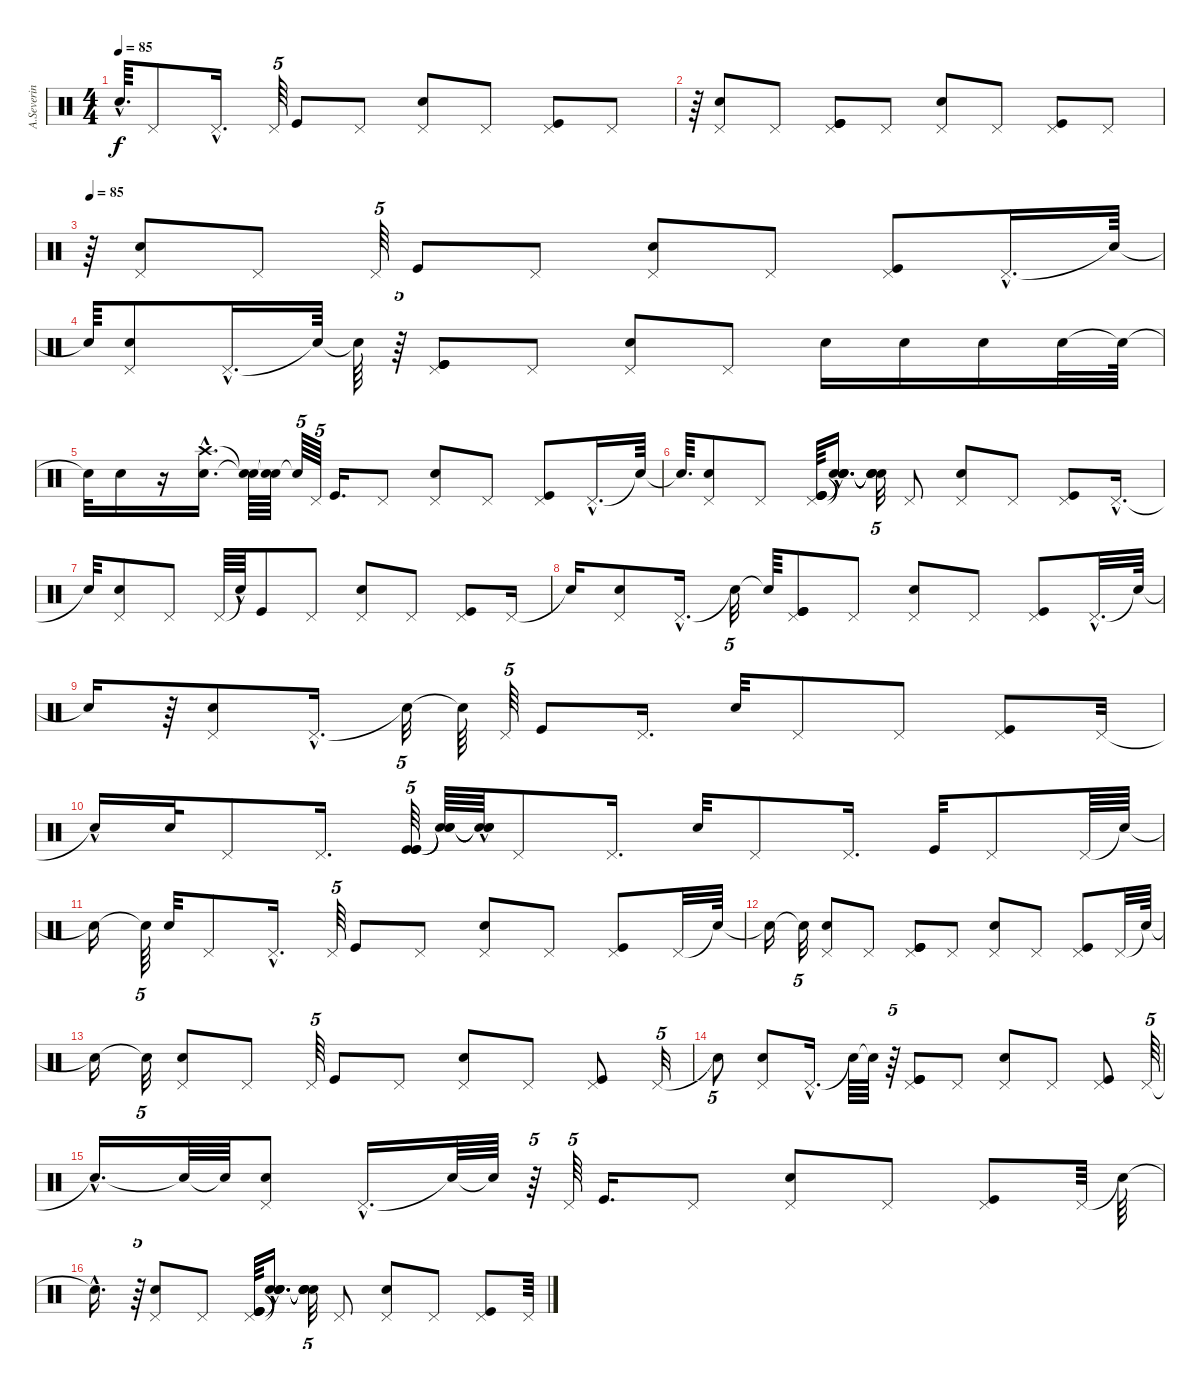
\track ("A.Severin        Drums                  " "A.Severin ") {instrument percussion}
\staff {score}
\articulation defaults
\ts (4 4)
\tempo 85
\clef neutral
\ks c "Snare (hit)"{hac t}.64{d dy f} "Pedal Hi-Hat (hit)".8 "Pedal Hi-Hat (hit)"{hac}.16{d} "Pedal Hi-Hat (hit)".64{tu (5 4)} "Kick (hit)".8 "Pedal Hi-Hat (hit)".8
("Electric Snare (hit)" "Pedal Hi-Hat (hit)").8 "Pedal Hi-Hat (hit)".8 ("Pedal Hi-Hat (hit)" "Kick (hit)").8 "Pedal Hi-Hat (hit)".8 |
r.64 ("Electric Snare (hit)" "Pedal Hi-Hat (hit)").8 "Pedal Hi-Hat (hit)".8 ("Kick (hit)" "Kick (hit)" "Kick (hit)" "Pedal Hi-Hat (hit)").8 "Pedal Hi-Hat (hit)".8 ("Electric Snare (hit)" "Pedal Hi-Hat (hit)").8 "Pedal Hi-Hat (hit)".8 ("Kick (hit)" "Pedal Hi-Hat (hit)").8 "Pedal Hi-Hat (hit)".8 |
\tempo 85
r.64 ("Electric Snare (hit)" "Pedal Hi-Hat (hit)").8 "Pedal Hi-Hat (hit)".8 "Pedal Hi-Hat (hit)".64{tu (5 4)} "Kick (hit)".8 "Pedal Hi-Hat (hit)".8 ("Electric Snare (hit)" "Pedal Hi-Hat (hit)").8 "Pedal Hi-Hat (hit)".8 ("Pedal Hi-Hat (hit)" "Kick (hit)").8 "Pedal Hi-Hat (hit)"{hac}.16{d} "Snare (hit)"{t}.64 |
"Snare (hit)"{t}.64 ("Electric Snare (hit)" "Pedal Hi-Hat (hit)").8 "Pedal Hi-Hat (hit)"{hac}.16{d} "Snare (hit)"{t}.64 "Snare (hit)"{t}.64 r.64{tu (5 4)} ("Kick (hit)" "Kick (hit)" "Kick (hit)" "Pedal Hi-Hat (hit)").8 "Pedal Hi-Hat (hit)".8 ("Electric Snare (hit)" "Pedal Hi-Hat (hit)").8 "Pedal Hi-Hat (hit)".8 "Electric Snare (hit)".16 "Electric Snare (hit)".16 "Electric Snare (hit)".16 "Electric Snare (hit)".32 "Snare (hit)"{t}.64 |
"Snare (hit)"{t}.32 "Electric Snare (hit)".16 r.16 ("Crash high (hit)"{hac} "Electric Snare (hit)"{hac}).16{d} ("Snare (hit)"{t} "Snare (hit)"{t}).64 ("Snare (hit)"{t} "Snare (hit)"{t}).64 "Snare (hit)"{t}.64{tu (5 4)} "Pedal Hi-Hat (hit)".64{tu (5 4)} "Kick (hit)".16{d} "Pedal Hi-Hat (hit)".8 ("Electric Snare (hit)" "Pedal Hi-Hat (hit)").8 "Pedal Hi-Hat (hit)".8 ("Kick (hit)" "Pedal Hi-Hat (hit)").8 "Pedal Hi-Hat (hit)"{hac}.16{d} "Snare (hit)"{t}.64 |
"Snare (hit)"{t}.64{d} ("Electric Snare (hit)" "Pedal Hi-Hat (hit)").8 "Pedal Hi-Hat (hit)".8 ("Kick (hit)" "Kick (hit)" "Kick (hit)" "Pedal Hi-Hat (hit)").64 ("Snare (hit)"{hac t} "Snare (hit)"{hac t} "Snare (hit)"{hac t} "Snare (hit)"{hac t}).16{d} ("Snare (hit)"{t} "Snare (hit)"{t} "Snare (hit)"{t} "Snare (hit)"{t}).32{tu (5 4)} "Pedal Hi-Hat (hit)".8 ("Electric Snare (hit)" "Pedal Hi-Hat (hit)").8 "Pedal Hi-Hat (hit)".8 ("Kick (hit)" "Pedal Hi-Hat (hit)").8 "Pedal Hi-Hat (hit)"{hac}.16{d} |
"Snare (hit)"{t}.32 ("Electric Snare (hit)" "Pedal Hi-Hat (hit)").8 "Pedal Hi-Hat (hit)".8 "Pedal Hi-Hat (hit)".64 "Snare (hit)"{hac t}.64 "Kick (hit)".8 "Pedal Hi-Hat (hit)".8 ("Electric Snare (hit)" "Pedal Hi-Hat (hit)").8 "Pedal Hi-Hat (hit)".8 ("Kick (hit)" "Pedal Hi-Hat (hit)").8 "Pedal Hi-Hat (hit)".16 |
"Snare (hit)"{t}.16 ("Electric Snare (hit)" "Pedal Hi-Hat (hit)").8 "Pedal Hi-Hat (hit)"{hac}.16{d} "Snare (hit)"{t}.32{tu (5 4)} "Snare (hit)"{t}.64 ("Kick (hit)" "Kick (hit)" "Kick (hit)" "Pedal Hi-Hat (hit)").8 "Pedal Hi-Hat (hit)".8 ("Electric Snare (hit)" "Pedal Hi-Hat (hit)").8 "Pedal Hi-Hat (hit)".8 ("Kick (hit)" "Pedal Hi-Hat (hit)").8 "Pedal Hi-Hat (hit)"{hac}.32{d} "Snare (hit)"{t}.64 |
"Snare (hit)"{t}.16 r.64 ("Electric Snare (hit)" "Pedal Hi-Hat (hit)").8 "Pedal Hi-Hat (hit)"{hac}.16{d} "Snare (hit)"{t}.32{tu (5 4)} "Snare (hit)"{t}.64 "Pedal Hi-Hat (hit)".64{tu (5 4)} "Kick (hit)".8 "Pedal Hi-Hat (hit)".16{d} "Electric Snare (hit)".32 "Pedal Hi-Hat (hit)".8 "Pedal Hi-Hat (hit)".8 ("Kick (hit)" "Pedal Hi-Hat (hit)").8 "Pedal Hi-Hat (hit)".32 |
"Snare (hit)"{hac t}.16 "Electric Snare (hit)".32 "Pedal Hi-Hat (hit)".8 "Pedal Hi-Hat (hit)".16{d} ("Kick (hit)" "Kick (hit)" "Kick (hit)").64{tu (5 4)} ("Snare (hit)"{t} "Snare (hit)"{t} "Snare (hit)"{t}).64 ("Snare (hit)"{hac t} "Snare (hit)"{hac t} "Snare (hit)"{hac t}).64 "Pedal Hi-Hat (hit)".8 "Pedal Hi-Hat (hit)".16{d} "Electric Snare (hit)".32 "Pedal Hi-Hat (hit)".8 "Pedal Hi-Hat (hit)".16{d} "Kick (hit)".32 "Pedal Hi-Hat (hit)".8 "Pedal Hi-Hat (hit)".64 "Snare (hit)"{t}.64 |
"Snare (hit)"{t}.16 "Snare (hit)"{t}.64{tu (5 4)} "Electric Snare (hit)".32 "Pedal Hi-Hat (hit)".8 "Pedal Hi-Hat (hit)"{hac}.16{d} "Pedal Hi-Hat (hit)".64{tu (5 4)} "Kick (hit)".8 "Pedal Hi-Hat (hit)".8 ("Electric Snare (hit)" "Pedal Hi-Hat (hit)").8 "Pedal Hi-Hat (hit)".8 ("Pedal Hi-Hat (hit)" "Kick (hit)").8 "Pedal Hi-Hat (hit)".32 "Snare (hit)"{t}.64 |
"Snare (hit)"{t}.16 "Snare (hit)"{t}.32{tu (5 4)} ("Electric Snare (hit)" "Pedal Hi-Hat (hit)").8 "Pedal Hi-Hat (hit)".8 ("Kick (hit)" "Kick (hit)" "Kick (hit)" "Pedal Hi-Hat (hit)").8 "Pedal Hi-Hat (hit)".8 ("Electric Snare (hit)" "Pedal Hi-Hat (hit)").8 "Pedal Hi-Hat (hit)".8 ("Pedal Hi-Hat (hit)" "Kick (hit)").8 "Pedal Hi-Hat (hit)".32 "Snare (hit)"{t}.64 |
"Snare (hit)"{t}.16 "Snare (hit)"{t}.32{tu (5 4)} ("Pedal Hi-Hat (hit)" "Electric Snare (hit)").8 "Pedal Hi-Hat (hit)".8 "Pedal Hi-Hat (hit)".64{tu (5 4)} "Kick (hit)".8 "Pedal Hi-Hat (hit)".8 ("Electric Snare (hit)" "Pedal Hi-Hat (hit)").8 "Pedal Hi-Hat (hit)".8 ("Kick (hit)" "Pedal Hi-Hat (hit)").8 "Pedal Hi-Hat (hit)".32{tu (5 4)} |
"Snare (hit)"{t}.8{tu (5 4)} ("Electric Snare (hit)" "Pedal Hi-Hat (hit)").8 "Pedal Hi-Hat (hit)"{hac}.16{d} "Snare (hit)"{t}.64 "Snare (hit)"{t}.64 r.64{tu (5 4)} ("Kick (hit)" "Kick (hit)" "Kick (hit)" "Pedal Hi-Hat (hit)").8 "Pedal Hi-Hat (hit)".8 ("Electric Snare (hit)" "Pedal Hi-Hat (hit)").8 "Pedal Hi-Hat (hit)".8 ("Kick (hit)" "Pedal Hi-Hat (hit)").8 "Pedal Hi-Hat (hit)".64{tu (5 4)} |
"Snare (hit)"{hac t}.16{d} "Snare (hit)"{t}.64 "Snare (hit)"{t}.64 ("Electric Snare (hit)" "Pedal Hi-Hat (hit)").8 "Pedal Hi-Hat (hit)"{hac}.16{d} "Snare (hit)"{t}.64 "Snare (hit)"{t}.64 r.64{tu (5 4)} "Pedal Hi-Hat (hit)".64{tu (5 4)} "Kick (hit)".16{d} "Pedal Hi-Hat (hit)".8 ("Electric Snare (hit)" "Pedal Hi-Hat (hit)").8 "Pedal Hi-Hat (hit)".8 ("Pedal Hi-Hat (hit)" "Kick (hit)").8 "Pedal Hi-Hat (hit)".64 "Snare (hit)"{t}.64 |
"Snare (hit)"{hac t}.16{d} r.64{tu (5 4)} ("Electric Snare (hit)" "Pedal Hi-Hat (hit)").8 "Pedal Hi-Hat (hit)".8 ("Kick (hit)" "Kick (hit)" "Kick (hit)" "Pedal Hi-Hat (hit)").64 ("Snare (hit)"{hac t} "Snare (hit)"{hac t} "Snare (hit)"{hac t} "Snare (hit)"{hac t}).16{d} ("Snare (hit)"{t} "Snare (hit)"{t} "Snare (hit)"{t} "Snare (hit)"{t}).32{tu (5 4)} "Pedal Hi-Hat (hit)".8 ("Electric Snare (hit)" "Pedal Hi-Hat (hit)").8 "Pedal Hi-Hat (hit)".8 ("Kick (hit)" "Pedal Hi-Hat (hit)").8 "Pedal Hi-Hat (hit)".64
